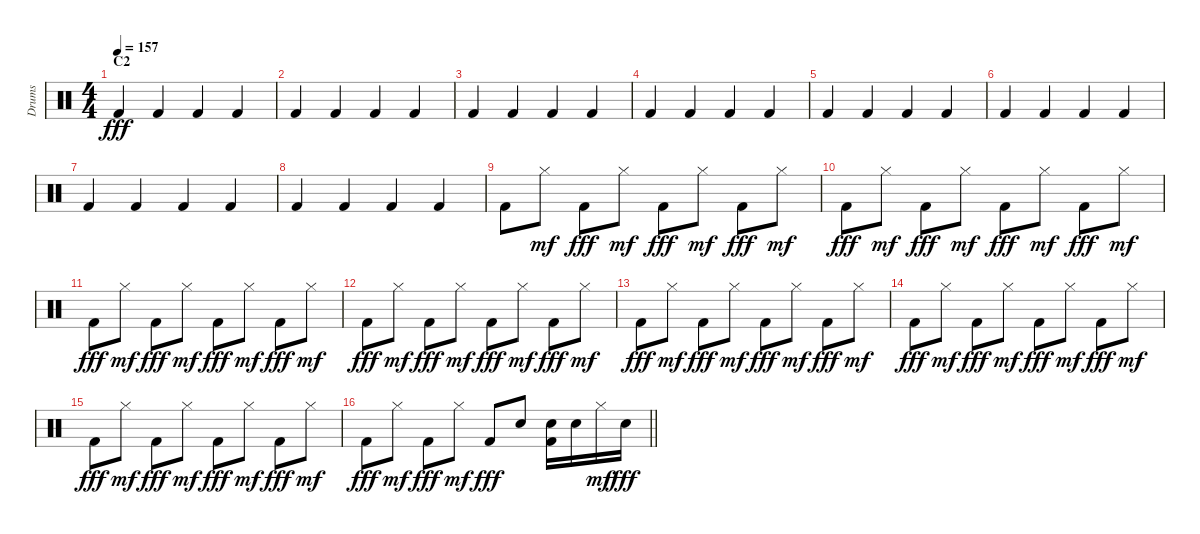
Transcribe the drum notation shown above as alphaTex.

\track ("Drums" "Drums") {instrument percussion}
\staff
\articulation defaults
\ts (4 4)
\section ("" "C2")
\tempo 157
\clef neutral
\ks c "Kick (hit) 2".4{dy fff} "Kick (hit) 2".4 "Kick (hit) 2".4 "Kick (hit) 2".4
|
"Kick (hit) 2".4 "Kick (hit) 2".4 "Kick (hit) 2".4 "Kick (hit) 2".4 |
"Kick (hit) 2".4 "Kick (hit) 2".4 "Kick (hit) 2".4 "Kick (hit) 2".4 |
"Kick (hit) 2".4 "Kick (hit) 2".4 "Kick (hit) 2".4 "Kick (hit) 2".4 |
"Kick (hit) 2".4 "Kick (hit) 2".4 "Kick (hit) 2".4 "Kick (hit) 2".4 |
"Kick (hit) 2".4 "Kick (hit) 2".4 "Kick (hit) 2".4 "Kick (hit) 2".4 |
"Kick (hit) 2".4 "Kick (hit) 2".4 "Kick (hit) 2".4 "Kick (hit) 2".4 |
"Kick (hit) 2".4 "Kick (hit) 2".4 "Kick (hit) 2".4 "Kick (hit) 2".4 |
"Kick (hit) 2".8 "Hi-Hat (closed)".8{dy mf} "Kick (hit) 2".8{dy fff} "Hi-Hat (closed)".8{dy mf} "Kick (hit) 2".8{dy fff} "Hi-Hat (closed)".8{dy mf} "Kick (hit) 2".8{dy fff} "Hi-Hat (closed)".8{dy mf} |
"Kick (hit) 2".8{dy fff} "Hi-Hat (closed)".8{dy mf} "Kick (hit) 2".8{dy fff} "Hi-Hat (closed)".8{dy mf} "Kick (hit) 2".8{dy fff} "Hi-Hat (closed)".8{dy mf} "Kick (hit) 2".8{dy fff} "Hi-Hat (closed)".8{dy mf} |
"Kick (hit) 2".8{dy fff} "Hi-Hat (closed)".8{dy mf} "Kick (hit) 2".8{dy fff} "Hi-Hat (closed)".8{dy mf} "Kick (hit) 2".8{dy fff} "Hi-Hat (closed)".8{dy mf} "Kick (hit) 2".8{dy fff} "Hi-Hat (closed)".8{dy mf} |
"Kick (hit) 2".8{dy fff} "Hi-Hat (closed)".8{dy mf} "Kick (hit) 2".8{dy fff} "Hi-Hat (closed)".8{dy mf} "Kick (hit) 2".8{dy fff} "Hi-Hat (closed)".8{dy mf} "Kick (hit) 2".8{dy fff} "Hi-Hat (closed)".8{dy mf} |
"Kick (hit) 2".8{dy fff} "Hi-Hat (closed)".8{dy mf} "Kick (hit) 2".8{dy fff} "Hi-Hat (closed)".8{dy mf} "Kick (hit) 2".8{dy fff} "Hi-Hat (closed)".8{dy mf} "Kick (hit) 2".8{dy fff} "Hi-Hat (closed)".8{dy mf} |
"Kick (hit) 2".8{dy fff} "Hi-Hat (closed)".8{dy mf} "Kick (hit) 2".8{dy fff} "Hi-Hat (closed)".8{dy mf} "Kick (hit) 2".8{dy fff} "Hi-Hat (closed)".8{dy mf} "Kick (hit) 2".8{dy fff} "Hi-Hat (closed)".8{dy mf} |
"Kick (hit) 2".8{dy fff} "Hi-Hat (closed)".8{dy mf} "Kick (hit) 2".8{dy fff} "Hi-Hat (closed)".8{dy mf} "Kick (hit) 2".8{dy fff} "Hi-Hat (closed)".8{dy mf} "Kick (hit) 2".8{dy fff} "Hi-Hat (closed)".8{dy mf} |
\barLineRight lightlight "Kick (hit) 2".8{dy fff} "Hi-Hat (closed)".8{dy mf} "Kick (hit) 2".8{dy fff} "Hi-Hat (closed)".8{dy mf} "Kick (hit) 2".8{dy fff} "Electric Snare (hit)".8
("Electric Snare (hit)" "Kick (hit) 2").16 "Electric Snare (hit)".16 "Hi-Hat (closed)".16{dy mf} "Electric Snare (hit)".16{dy fff}
